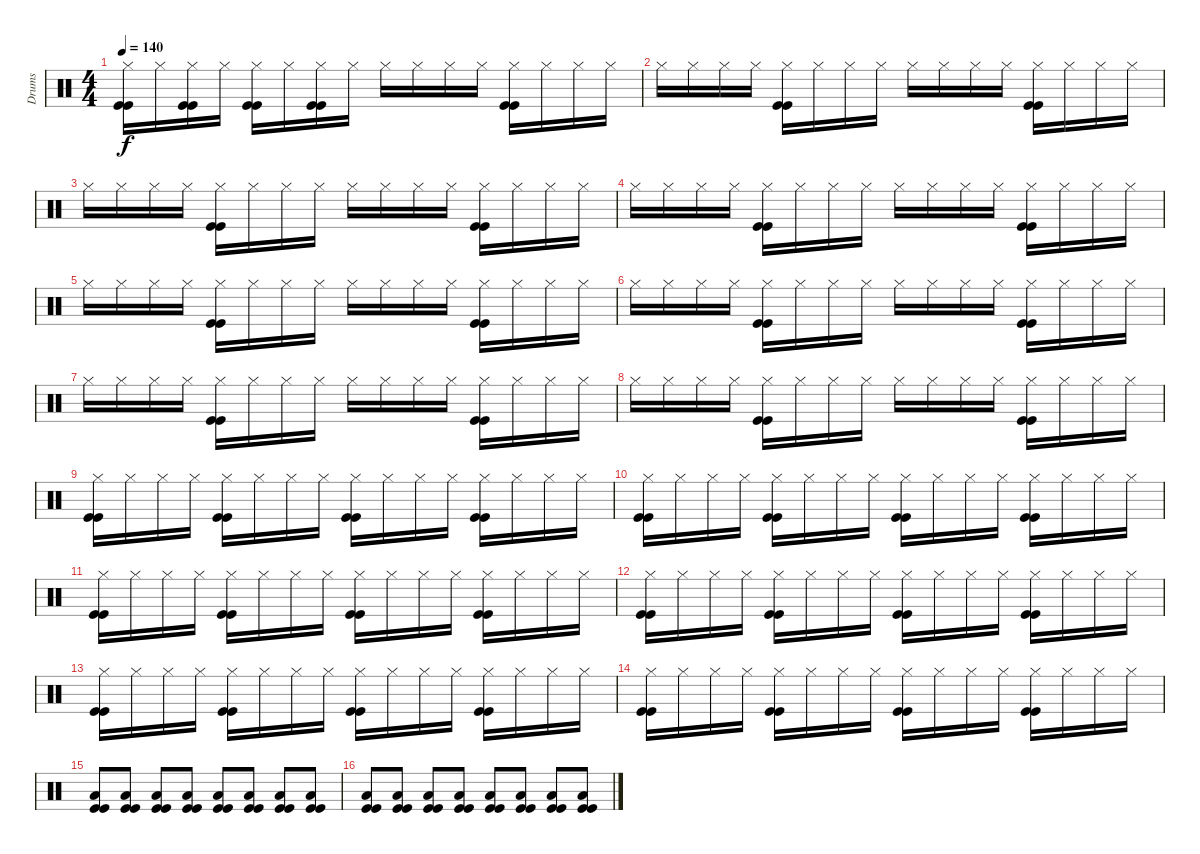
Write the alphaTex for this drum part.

\track ("Drums" "Drums") {instrument percussion}
\staff {score}
\articulation defaults
\ts (4 4)
\tempo 140
\clef neutral
\ks c
("Hi-Hat (closed)" "Kick (hit)" "Kick (hit)").16{dy f} "Hi-Hat (closed)".16 ("Hi-Hat (closed)" "Kick (hit)" "Kick (hit)").16 "Hi-Hat (closed)".16 ("Hi-Hat (closed)" "Kick (hit)" "Kick (hit)").16 "Hi-Hat (closed)".16 ("Hi-Hat (closed)" "Kick (hit)" "Kick (hit)").16 "Hi-Hat (closed)".16 "Hi-Hat (closed)".16 "Hi-Hat (closed)".16 "Hi-Hat (closed)".16 "Hi-Hat (closed)".16 ("Hi-Hat (closed)" "Kick (hit)" "Kick (hit)").16 "Hi-Hat (closed)".16 "Hi-Hat (closed)".16 "Hi-Hat (closed)".16 |
"Hi-Hat (closed)".16 "Hi-Hat (closed)".16 "Hi-Hat (closed)".16 "Hi-Hat (closed)".16 ("Hi-Hat (closed)" "Kick (hit)" "Kick (hit)").16 "Hi-Hat (closed)".16 "Hi-Hat (closed)".16 "Hi-Hat (closed)".16 "Hi-Hat (closed)".16 "Hi-Hat (closed)".16 "Hi-Hat (closed)".16 "Hi-Hat (closed)".16 ("Hi-Hat (closed)" "Kick (hit)" "Kick (hit)").16 "Hi-Hat (closed)".16 "Hi-Hat (closed)".16 "Hi-Hat (closed)".16 |
"Hi-Hat (closed)".16 "Hi-Hat (closed)".16 "Hi-Hat (closed)".16 "Hi-Hat (closed)".16 ("Hi-Hat (closed)" "Kick (hit)" "Kick (hit)").16 "Hi-Hat (closed)".16 "Hi-Hat (closed)".16 "Hi-Hat (closed)".16 "Hi-Hat (closed)".16 "Hi-Hat (closed)".16 "Hi-Hat (closed)".16 "Hi-Hat (closed)".16 ("Hi-Hat (closed)" "Kick (hit)" "Kick (hit)").16 "Hi-Hat (closed)".16 "Hi-Hat (closed)".16 "Hi-Hat (closed)".16 |
"Hi-Hat (closed)".16 "Hi-Hat (closed)".16 "Hi-Hat (closed)".16 "Hi-Hat (closed)".16 ("Hi-Hat (closed)" "Kick (hit)" "Kick (hit)").16 "Hi-Hat (closed)".16 "Hi-Hat (closed)".16 "Hi-Hat (closed)".16 "Hi-Hat (closed)".16 "Hi-Hat (closed)".16 "Hi-Hat (closed)".16 "Hi-Hat (closed)".16 ("Hi-Hat (closed)" "Kick (hit)" "Kick (hit)").16 "Hi-Hat (closed)".16 "Hi-Hat (closed)".16 "Hi-Hat (closed)".16 |
"Hi-Hat (closed)".16 "Hi-Hat (closed)".16 "Hi-Hat (closed)".16 "Hi-Hat (closed)".16 ("Hi-Hat (closed)" "Kick (hit)" "Kick (hit)").16 "Hi-Hat (closed)".16 "Hi-Hat (closed)".16 "Hi-Hat (closed)".16 "Hi-Hat (closed)".16 "Hi-Hat (closed)".16 "Hi-Hat (closed)".16 "Hi-Hat (closed)".16 ("Hi-Hat (closed)" "Kick (hit)" "Kick (hit)").16 "Hi-Hat (closed)".16 "Hi-Hat (closed)".16 "Hi-Hat (closed)".16 |
"Hi-Hat (closed)".16 "Hi-Hat (closed)".16 "Hi-Hat (closed)".16 "Hi-Hat (closed)".16 ("Hi-Hat (closed)" "Kick (hit)" "Kick (hit)").16 "Hi-Hat (closed)".16 "Hi-Hat (closed)".16 "Hi-Hat (closed)".16 "Hi-Hat (closed)".16 "Hi-Hat (closed)".16 "Hi-Hat (closed)".16 "Hi-Hat (closed)".16 ("Hi-Hat (closed)" "Kick (hit)" "Kick (hit)").16 "Hi-Hat (closed)".16 "Hi-Hat (closed)".16 "Hi-Hat (closed)".16 |
"Hi-Hat (closed)".16 "Hi-Hat (closed)".16 "Hi-Hat (closed)".16 "Hi-Hat (closed)".16 ("Hi-Hat (closed)" "Kick (hit)" "Kick (hit)").16 "Hi-Hat (closed)".16 "Hi-Hat (closed)".16 "Hi-Hat (closed)".16 "Hi-Hat (closed)".16 "Hi-Hat (closed)".16 "Hi-Hat (closed)".16 "Hi-Hat (closed)".16 ("Hi-Hat (closed)" "Kick (hit)" "Kick (hit)").16 "Hi-Hat (closed)".16 "Hi-Hat (closed)".16 "Hi-Hat (closed)".16 |
"Hi-Hat (closed)".16 "Hi-Hat (closed)".16 "Hi-Hat (closed)".16 "Hi-Hat (closed)".16 ("Hi-Hat (closed)" "Kick (hit)" "Kick (hit)").16 "Hi-Hat (closed)".16 "Hi-Hat (closed)".16 "Hi-Hat (closed)".16 "Hi-Hat (closed)".16 "Hi-Hat (closed)".16 "Hi-Hat (closed)".16 "Hi-Hat (closed)".16 ("Hi-Hat (closed)" "Kick (hit)" "Kick (hit)").16 "Hi-Hat (closed)".16 "Hi-Hat (closed)".16 "Hi-Hat (closed)".16 |
("Hi-Hat (closed)" "Kick (hit)" "Kick (hit)").16 "Hi-Hat (closed)".16 "Hi-Hat (closed)".16 "Hi-Hat (closed)".16 ("Hi-Hat (closed)" "Kick (hit)" "Kick (hit)").16 "Hi-Hat (closed)".16 "Hi-Hat (closed)".16 "Hi-Hat (closed)".16 ("Hi-Hat (closed)" "Kick (hit)" "Kick (hit)").16 "Hi-Hat (closed)".16 "Hi-Hat (closed)".16 "Hi-Hat (closed)".16 ("Hi-Hat (closed)" "Kick (hit)" "Kick (hit)").16 "Hi-Hat (closed)".16 "Hi-Hat (closed)".16 "Hi-Hat (closed)".16 |
("Hi-Hat (closed)" "Kick (hit)" "Kick (hit)").16 "Hi-Hat (closed)".16 "Hi-Hat (closed)".16 "Hi-Hat (closed)".16 ("Hi-Hat (closed)" "Kick (hit)" "Kick (hit)").16 "Hi-Hat (closed)".16 "Hi-Hat (closed)".16 "Hi-Hat (closed)".16 ("Hi-Hat (closed)" "Kick (hit)" "Kick (hit)").16 "Hi-Hat (closed)".16 "Hi-Hat (closed)".16 "Hi-Hat (closed)".16 ("Hi-Hat (closed)" "Kick (hit)" "Kick (hit)").16 "Hi-Hat (closed)".16 "Hi-Hat (closed)".16 "Hi-Hat (closed)".16 |
("Hi-Hat (closed)" "Kick (hit)" "Kick (hit)").16 "Hi-Hat (closed)".16 "Hi-Hat (closed)".16 "Hi-Hat (closed)".16 ("Hi-Hat (closed)" "Kick (hit)" "Kick (hit)").16 "Hi-Hat (closed)".16 "Hi-Hat (closed)".16 "Hi-Hat (closed)".16 ("Hi-Hat (closed)" "Kick (hit)" "Kick (hit)").16 "Hi-Hat (closed)".16 "Hi-Hat (closed)".16 "Hi-Hat (closed)".16 ("Hi-Hat (closed)" "Kick (hit)" "Kick (hit)").16 "Hi-Hat (closed)".16 "Hi-Hat (closed)".16 "Hi-Hat (closed)".16 |
("Hi-Hat (closed)" "Kick (hit)" "Kick (hit)").16 "Hi-Hat (closed)".16 "Hi-Hat (closed)".16 "Hi-Hat (closed)".16 ("Hi-Hat (closed)" "Kick (hit)" "Kick (hit)").16 "Hi-Hat (closed)".16 "Hi-Hat (closed)".16 "Hi-Hat (closed)".16 ("Hi-Hat (closed)" "Kick (hit)" "Kick (hit)").16 "Hi-Hat (closed)".16 "Hi-Hat (closed)".16 "Hi-Hat (closed)".16 ("Hi-Hat (closed)" "Kick (hit)" "Kick (hit)").16 "Hi-Hat (closed)".16 "Hi-Hat (closed)".16 "Hi-Hat (closed)".16 |
("Hi-Hat (closed)" "Kick (hit)" "Kick (hit)").16 "Hi-Hat (closed)".16 "Hi-Hat (closed)".16 "Hi-Hat (closed)".16 ("Hi-Hat (closed)" "Kick (hit)" "Kick (hit)").16 "Hi-Hat (closed)".16 "Hi-Hat (closed)".16 "Hi-Hat (closed)".16 ("Hi-Hat (closed)" "Kick (hit)" "Kick (hit)").16 "Hi-Hat (closed)".16 "Hi-Hat (closed)".16 "Hi-Hat (closed)".16 ("Hi-Hat (closed)" "Kick (hit)" "Kick (hit)").16 "Hi-Hat (closed)".16 "Hi-Hat (closed)".16 "Hi-Hat (closed)".16 |
("Hi-Hat (closed)" "Kick (hit)" "Kick (hit)").16 "Hi-Hat (closed)".16 "Hi-Hat (closed)".16 "Hi-Hat (closed)".16 ("Hi-Hat (closed)" "Kick (hit)" "Kick (hit)").16 "Hi-Hat (closed)".16 "Hi-Hat (closed)".16 "Hi-Hat (closed)".16 ("Hi-Hat (closed)" "Kick (hit)" "Kick (hit)").16 "Hi-Hat (closed)".16 "Hi-Hat (closed)".16 "Hi-Hat (closed)".16 ("Hi-Hat (closed)" "Kick (hit)" "Kick (hit)").16 "Hi-Hat (closed)".16 "Hi-Hat (closed)".16 "Hi-Hat (closed)".16 |
("Low Floor Tom (hit)" "Kick (hit)" "Kick (hit)").8 ("Low Floor Tom (hit)" "Kick (hit)" "Kick (hit)").8 ("Low Floor Tom (hit)" "Kick (hit)" "Kick (hit)").8 ("Low Floor Tom (hit)" "Kick (hit)" "Kick (hit)").8 ("Low Floor Tom (hit)" "Kick (hit)" "Kick (hit)").8 ("Low Floor Tom (hit)" "Kick (hit)" "Kick (hit)").8 ("Low Floor Tom (hit)" "Kick (hit)" "Kick (hit)").8 ("Low Floor Tom (hit)" "Kick (hit)" "Kick (hit)").8 |
("Low Floor Tom (hit)" "Kick (hit)" "Kick (hit)").8 ("Low Floor Tom (hit)" "Kick (hit)" "Kick (hit)").8 ("Low Floor Tom (hit)" "Kick (hit)" "Kick (hit)").8 ("Low Floor Tom (hit)" "Kick (hit)" "Kick (hit)").8 ("Low Floor Tom (hit)" "Kick (hit)" "Kick (hit)").8 ("Low Floor Tom (hit)" "Kick (hit)" "Kick (hit)").8 ("Low Floor Tom (hit)" "Kick (hit)" "Kick (hit)").8 ("Low Floor Tom (hit)" "Kick (hit)" "Kick (hit)").8
